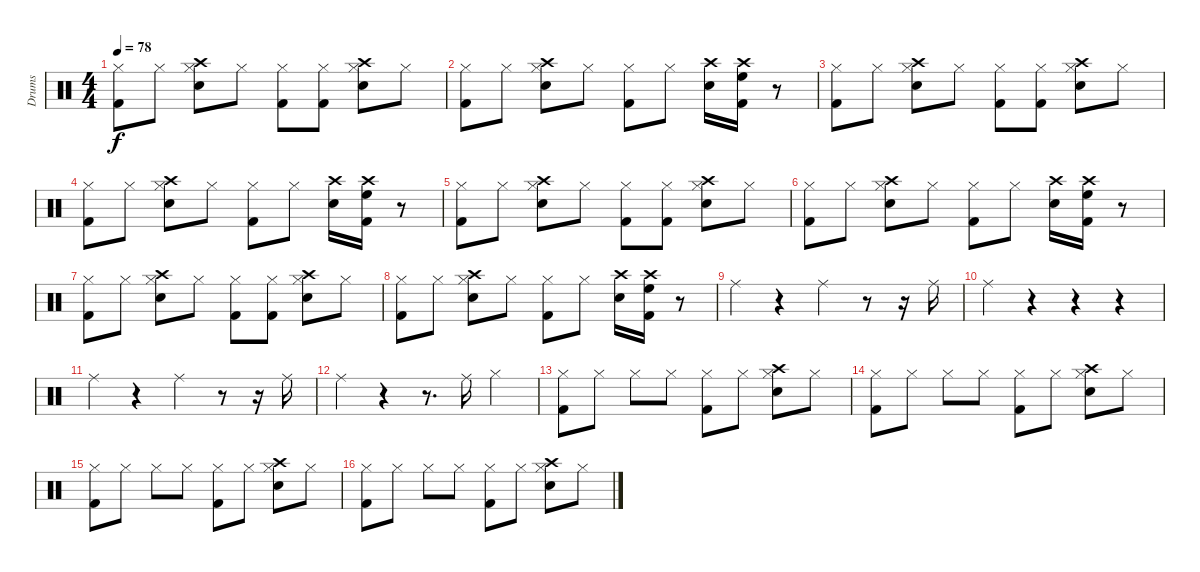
\track ("Drums" "Drums") {instrument percussion}
\staff {score}
\articulation defaults
\ts (4 4)
\tempo 78
\clef neutral
\ks c
("Hi-Hat (closed)" "Kick (hit) 2").8{dy f} "Hi-Hat (closed)".8 ("Crash high (hit)" "Hi-Hat (closed)" "Snare (hit) 2").8 "Hi-Hat (closed)".8 ("Hi-Hat (closed)" "Kick (hit) 2").8 ("Hi-Hat (closed)" "Kick (hit) 2").8 ("Crash high (hit)" "Hi-Hat (closed)" "Snare (hit) 2").8 "Hi-Hat (closed)".8 |
("Hi-Hat (closed)" "Kick (hit) 2").8 "Hi-Hat (closed)".8 ("Crash high (hit)" "Hi-Hat (closed)" "Snare (hit) 2").8 "Hi-Hat (closed)".8 ("Hi-Hat (closed)" "Kick (hit) 2").8 "Hi-Hat (closed)".8 ("Crash high (hit)" "Snare (hit) 2").16 ("Crash high (hit)" "High Floor Tom (hit)" "Kick (hit) 2").16 r.8 |
("Hi-Hat (closed)" "Kick (hit) 2").8 "Hi-Hat (closed)".8 ("Crash high (hit)" "Hi-Hat (closed)" "Snare (hit) 2").8 "Hi-Hat (closed)".8 ("Hi-Hat (closed)" "Kick (hit) 2").8 ("Hi-Hat (closed)" "Kick (hit) 2").8 ("Crash high (hit)" "Hi-Hat (closed)" "Snare (hit) 2").8 "Hi-Hat (closed)".8 |
("Hi-Hat (closed)" "Kick (hit) 2").8 "Hi-Hat (closed)".8 ("Crash high (hit)" "Hi-Hat (closed)" "Snare (hit) 2").8 "Hi-Hat (closed)".8 ("Hi-Hat (closed)" "Kick (hit) 2").8 "Hi-Hat (closed)".8 ("Crash high (hit)" "Snare (hit) 2").16 ("Crash high (hit)" "High Floor Tom (hit)" "Kick (hit) 2").16 r.8 |
("Hi-Hat (closed)" "Kick (hit) 2").8 "Hi-Hat (closed)".8 ("Crash high (hit)" "Hi-Hat (closed)" "Snare (hit) 2").8 "Hi-Hat (closed)".8 ("Hi-Hat (closed)" "Kick (hit) 2").8 ("Hi-Hat (closed)" "Kick (hit) 2").8 ("Crash high (hit)" "Hi-Hat (closed)" "Snare (hit) 2").8 "Hi-Hat (closed)".8 |
("Hi-Hat (closed)" "Kick (hit) 2").8 "Hi-Hat (closed)".8 ("Crash high (hit)" "Hi-Hat (closed)" "Snare (hit) 2").8 "Hi-Hat (closed)".8 ("Hi-Hat (closed)" "Kick (hit) 2").8 "Hi-Hat (closed)".8 ("Crash high (hit)" "Snare (hit) 2").16 ("Crash high (hit)" "High Floor Tom (hit)" "Kick (hit) 2").16 r.8 |
("Hi-Hat (closed)" "Kick (hit) 2").8 "Hi-Hat (closed)".8 ("Crash high (hit)" "Hi-Hat (closed)" "Snare (hit) 2").8 "Hi-Hat (closed)".8 ("Hi-Hat (closed)" "Kick (hit) 2").8 ("Hi-Hat (closed)" "Kick (hit) 2").8 ("Crash high (hit)" "Hi-Hat (closed)" "Snare (hit) 2").8 "Hi-Hat (closed)".8 |
("Hi-Hat (closed)" "Kick (hit) 2").8 "Hi-Hat (closed)".8 ("Crash high (hit)" "Hi-Hat (closed)" "Snare (hit) 2").8 "Hi-Hat (closed)".8 ("Hi-Hat (closed)" "Kick (hit) 2").8 "Hi-Hat (closed)".8 ("Crash high (hit)" "Snare (hit) 2").16 ("Crash high (hit)" "High Floor Tom (hit)" "Kick (hit) 2").16 r.8 |
"Ride (middle)".4 r.4 "Ride (middle)".4 r.8 r.16 "Ride (middle)".16 |
"Ride (middle)".4 r.4 r.4 r.4 |
"Ride (middle)".4 r.4 "Ride (middle)".4 r.8 r.16 "Ride (middle)".16 |
"Ride (middle)".4 r.4 r.8{d} "Ride (middle)".16 "Hi-Hat (closed)".4 |
("Hi-Hat (closed)" "Kick (hit) 2").8 "Hi-Hat (closed)".8 "Hi-Hat (closed)".8 "Hi-Hat (closed)".8 ("Hi-Hat (closed)" "Kick (hit) 2").8 "Hi-Hat (closed)".8 ("Crash high (hit)" "Hi-Hat (closed)" "Snare (hit) 2").8 "Hi-Hat (closed)".8 |
("Hi-Hat (closed)" "Kick (hit) 2").8 "Hi-Hat (closed)".8 "Hi-Hat (closed)".8 "Hi-Hat (closed)".8 ("Hi-Hat (closed)" "Kick (hit) 2").8 "Hi-Hat (closed)".8 ("Crash high (hit)" "Hi-Hat (closed)" "Snare (hit) 2").8 "Hi-Hat (closed)".8 |
("Hi-Hat (closed)" "Kick (hit) 2").8 "Hi-Hat (closed)".8 "Hi-Hat (closed)".8 "Hi-Hat (closed)".8 ("Hi-Hat (closed)" "Kick (hit) 2").8 "Hi-Hat (closed)".8 ("Crash high (hit)" "Hi-Hat (closed)" "Snare (hit) 2").8 "Hi-Hat (closed)".8 |
("Hi-Hat (closed)" "Kick (hit) 2").8 "Hi-Hat (closed)".8 "Hi-Hat (closed)".8 "Hi-Hat (closed)".8 ("Hi-Hat (closed)" "Kick (hit) 2").8 "Hi-Hat (closed)".8 ("Crash high (hit)" "Hi-Hat (closed)" "Snare (hit) 2").8 "Hi-Hat (closed)".8
